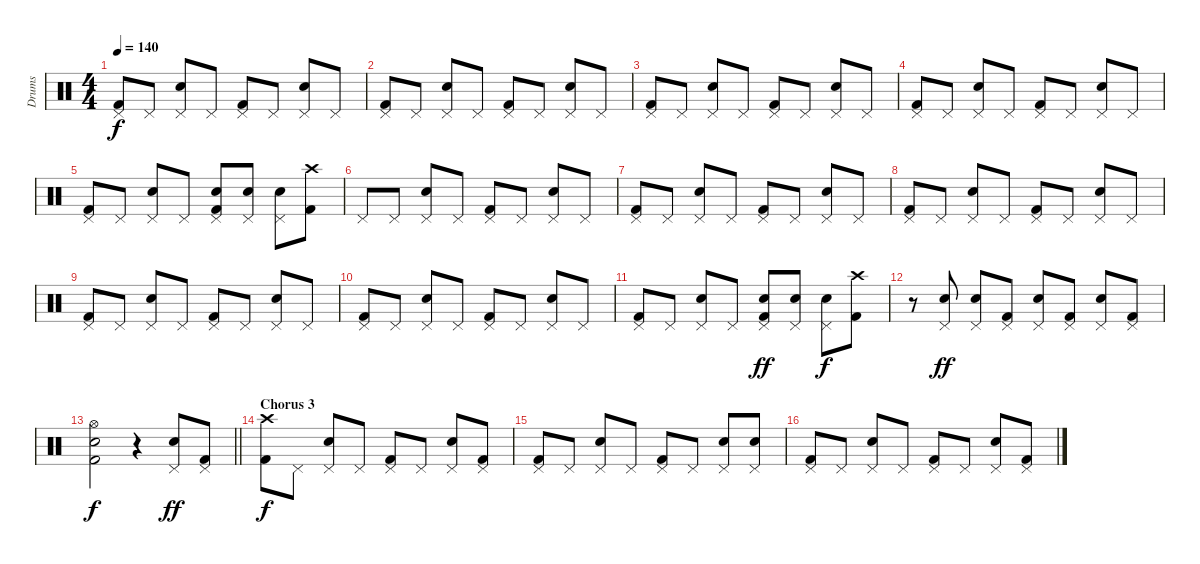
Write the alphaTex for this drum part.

\track ("Drums" "Drums") {instrument percussion}
\staff {score}
\articulation defaults
\ts (4 4)
\tempo 140
\clef neutral
\ks c
("Pedal Hi-Hat (hit)" "Kick (hit) 2").8{dy f} "Pedal Hi-Hat (hit)".8 ("Pedal Hi-Hat (hit)" "Electric Snare (hit)").8 "Pedal Hi-Hat (hit)".8 ("Pedal Hi-Hat (hit)" "Kick (hit) 2").8 "Pedal Hi-Hat (hit)".8 ("Pedal Hi-Hat (hit)" "Electric Snare (hit)").8 "Pedal Hi-Hat (hit)".8 |
("Pedal Hi-Hat (hit)" "Kick (hit) 2").8 "Pedal Hi-Hat (hit)".8 ("Pedal Hi-Hat (hit)" "Electric Snare (hit)").8 "Pedal Hi-Hat (hit)".8 ("Pedal Hi-Hat (hit)" "Kick (hit) 2").8 "Pedal Hi-Hat (hit)".8 ("Pedal Hi-Hat (hit)" "Electric Snare (hit)").8 "Pedal Hi-Hat (hit)".8 |
("Pedal Hi-Hat (hit)" "Kick (hit) 2").8 "Pedal Hi-Hat (hit)".8 ("Pedal Hi-Hat (hit)" "Electric Snare (hit)").8 "Pedal Hi-Hat (hit)".8 ("Pedal Hi-Hat (hit)" "Kick (hit) 2").8 "Pedal Hi-Hat (hit)".8 ("Pedal Hi-Hat (hit)" "Electric Snare (hit)").8 "Pedal Hi-Hat (hit)".8 |
("Pedal Hi-Hat (hit)" "Kick (hit) 2").8 "Pedal Hi-Hat (hit)".8 ("Pedal Hi-Hat (hit)" "Electric Snare (hit)").8 "Pedal Hi-Hat (hit)".8 ("Pedal Hi-Hat (hit)" "Kick (hit) 2").8 "Pedal Hi-Hat (hit)".8 ("Pedal Hi-Hat (hit)" "Electric Snare (hit)").8 "Pedal Hi-Hat (hit)".8 |
("Pedal Hi-Hat (hit)" "Kick (hit) 2").8 "Pedal Hi-Hat (hit)".8 ("Pedal Hi-Hat (hit)" "Electric Snare (hit)").8 "Pedal Hi-Hat (hit)".8 ("Pedal Hi-Hat (hit)" "Electric Snare (hit)" "Kick (hit) 2").8 ("Pedal Hi-Hat (hit)" "Electric Snare (hit)").8 ("Pedal Hi-Hat (hit)" "Electric Snare (hit)").8 ("Crash high (hit)" "Kick (hit) 2").8 |
"Pedal Hi-Hat (hit)".8 "Pedal Hi-Hat (hit)".8 ("Pedal Hi-Hat (hit)" "Electric Snare (hit)").8 "Pedal Hi-Hat (hit)".8 ("Pedal Hi-Hat (hit)" "Kick (hit) 2").8 "Pedal Hi-Hat (hit)".8 ("Pedal Hi-Hat (hit)" "Electric Snare (hit)").8 "Pedal Hi-Hat (hit)".8 |
("Pedal Hi-Hat (hit)" "Kick (hit) 2").8 "Pedal Hi-Hat (hit)".8 ("Pedal Hi-Hat (hit)" "Electric Snare (hit)").8 "Pedal Hi-Hat (hit)".8 ("Pedal Hi-Hat (hit)" "Kick (hit) 2").8 "Pedal Hi-Hat (hit)".8 ("Pedal Hi-Hat (hit)" "Electric Snare (hit)").8 "Pedal Hi-Hat (hit)".8 |
("Pedal Hi-Hat (hit)" "Kick (hit) 2").8 "Pedal Hi-Hat (hit)".8 ("Pedal Hi-Hat (hit)" "Electric Snare (hit)").8 "Pedal Hi-Hat (hit)".8 ("Pedal Hi-Hat (hit)" "Kick (hit) 2").8 "Pedal Hi-Hat (hit)".8 ("Pedal Hi-Hat (hit)" "Electric Snare (hit)").8 "Pedal Hi-Hat (hit)".8 |
("Pedal Hi-Hat (hit)" "Kick (hit) 2").8 "Pedal Hi-Hat (hit)".8 ("Pedal Hi-Hat (hit)" "Electric Snare (hit)").8 "Pedal Hi-Hat (hit)".8 ("Pedal Hi-Hat (hit)" "Kick (hit) 2").8 "Pedal Hi-Hat (hit)".8 ("Pedal Hi-Hat (hit)" "Electric Snare (hit)").8 "Pedal Hi-Hat (hit)".8 |
("Pedal Hi-Hat (hit)" "Kick (hit) 2").8 "Pedal Hi-Hat (hit)".8 ("Pedal Hi-Hat (hit)" "Electric Snare (hit)").8 "Pedal Hi-Hat (hit)".8 ("Pedal Hi-Hat (hit)" "Kick (hit) 2").8 "Pedal Hi-Hat (hit)".8 ("Pedal Hi-Hat (hit)" "Electric Snare (hit)").8 "Pedal Hi-Hat (hit)".8 |
("Pedal Hi-Hat (hit)" "Kick (hit) 2").8 "Pedal Hi-Hat (hit)".8 ("Pedal Hi-Hat (hit)" "Electric Snare (hit)").8 "Pedal Hi-Hat (hit)".8 ("Pedal Hi-Hat (hit)" "Electric Snare (hit)" "Kick (hit) 2").8{dy ff} ("Pedal Hi-Hat (hit)" "Electric Snare (hit)").8 ("Pedal Hi-Hat (hit)" "Electric Snare (hit)").8{dy f} ("Crash high (hit)" "Kick (hit) 2").8 |
r.8 ("Pedal Hi-Hat (hit)" "Electric Snare (hit)").8{dy ff} ("Pedal Hi-Hat (hit)" "Electric Snare (hit)").8 ("Pedal Hi-Hat (hit)" "Kick (hit) 2").8 ("Pedal Hi-Hat (hit)" "Electric Snare (hit)").8 ("Pedal Hi-Hat (hit)" "Kick (hit) 2").8 ("Pedal Hi-Hat (hit)" "Electric Snare (hit)").8 ("Pedal Hi-Hat (hit)" "Kick (hit) 2").8 |
\barLineRight lightlight
("Hi-Hat (open)" "Electric Snare (hit)" "Kick (hit) 2").2{dy f} r.4 ("Pedal Hi-Hat (hit)" "Electric Snare (hit)").8{dy ff} ("Pedal Hi-Hat (hit)" "Kick (hit) 2").8 |
\section ("" "Chorus 3")
("Crash high (hit)" "Kick (hit) 2").8{dy f} "Pedal Hi-Hat (hit)".8 ("Pedal Hi-Hat (hit)" "Electric Snare (hit)").8 "Pedal Hi-Hat (hit)".8 ("Pedal Hi-Hat (hit)" "Kick (hit) 2").8 "Pedal Hi-Hat (hit)".8 ("Pedal Hi-Hat (hit)" "Electric Snare (hit)").8 ("Pedal Hi-Hat (hit)" "Kick (hit) 2").8 |
("Pedal Hi-Hat (hit)" "Kick (hit) 2").8 "Pedal Hi-Hat (hit)".8 ("Pedal Hi-Hat (hit)" "Electric Snare (hit)").8 "Pedal Hi-Hat (hit)".8 ("Pedal Hi-Hat (hit)" "Kick (hit) 2").8 "Pedal Hi-Hat (hit)".8 ("Pedal Hi-Hat (hit)" "Electric Snare (hit)").8 ("Pedal Hi-Hat (hit)" "Electric Snare (hit)").8 |
("Pedal Hi-Hat (hit)" "Kick (hit) 2").8 "Pedal Hi-Hat (hit)".8 ("Pedal Hi-Hat (hit)" "Electric Snare (hit)").8 "Pedal Hi-Hat (hit)".8 ("Pedal Hi-Hat (hit)" "Kick (hit) 2").8 "Pedal Hi-Hat (hit)".8 ("Pedal Hi-Hat (hit)" "Electric Snare (hit)").8 ("Pedal Hi-Hat (hit)" "Kick (hit) 2").8
